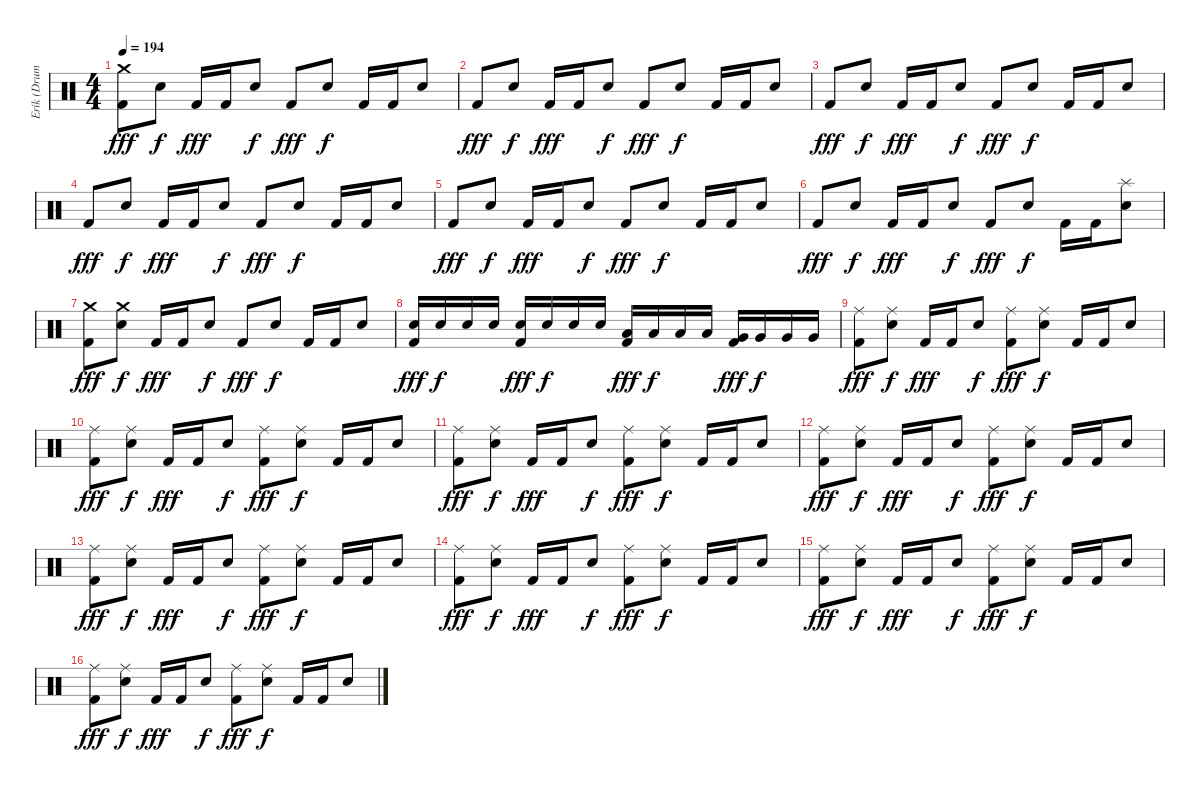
\track ("Erik (Drums)" "Erik (Drum") {instrument percussion}
\staff {score}
\articulation defaults
\ts (4 4)
\tempo 194
\clef neutral
\ks c
("Crash medium (hit)" "Kick (hit) 2").8{dy fff} "Electric Snare (hit)".8{dy f} "Kick (hit) 2".16{dy fff} "Kick (hit) 2".16 "Electric Snare (hit)".8{dy f} "Kick (hit) 2".8{dy fff} "Electric Snare (hit)".8{dy f} "Kick (hit) 2".16 "Kick (hit) 2".16 "Electric Snare (hit)".8 |
"Kick (hit) 2".8{dy fff} "Electric Snare (hit)".8{dy f} "Kick (hit) 2".16{dy fff} "Kick (hit) 2".16 "Electric Snare (hit)".8{dy f} "Kick (hit) 2".8{dy fff} "Electric Snare (hit)".8{dy f} "Kick (hit) 2".16 "Kick (hit) 2".16 "Electric Snare (hit)".8 |
"Kick (hit) 2".8{dy fff} "Electric Snare (hit)".8{dy f} "Kick (hit) 2".16{dy fff} "Kick (hit) 2".16 "Electric Snare (hit)".8{dy f} "Kick (hit) 2".8{dy fff} "Electric Snare (hit)".8{dy f} "Kick (hit) 2".16 "Kick (hit) 2".16 "Electric Snare (hit)".8 |
"Kick (hit) 2".8{dy fff} "Electric Snare (hit)".8{dy f} "Kick (hit) 2".16{dy fff} "Kick (hit) 2".16 "Electric Snare (hit)".8{dy f} "Kick (hit) 2".8{dy fff} "Electric Snare (hit)".8{dy f} "Kick (hit) 2".16 "Kick (hit) 2".16 "Electric Snare (hit)".8 |
"Kick (hit) 2".8{dy fff} "Electric Snare (hit)".8{dy f} "Kick (hit) 2".16{dy fff} "Kick (hit) 2".16 "Electric Snare (hit)".8{dy f} "Kick (hit) 2".8{dy fff} "Electric Snare (hit)".8{dy f} "Kick (hit) 2".16 "Kick (hit) 2".16 "Electric Snare (hit)".8 |
"Kick (hit) 2".8{dy fff} "Electric Snare (hit)".8{dy f} "Kick (hit) 2".16{dy fff} "Kick (hit) 2".16 "Electric Snare (hit)".8{dy f} "Kick (hit) 2".8{dy fff} "Electric Snare (hit)".8{dy f} "Kick (hit) 2".16 "Kick (hit) 2".16 ("Splash (hit)" "Electric Snare (hit)").8 |
("Crash medium (hit)" "Kick (hit) 2").8{dy fff} ("Crash medium (hit)" "Electric Snare (hit)").8{dy f} "Kick (hit) 2".16{dy fff} "Kick (hit) 2".16 "Electric Snare (hit)".8{dy f} "Kick (hit) 2".8{dy fff} "Electric Snare (hit)".8{dy f} "Kick (hit) 2".16 "Kick (hit) 2".16 "Electric Snare (hit)".8 |
("Electric Snare (hit)" "Kick (hit) 2").16{dy fff} "Electric Snare (hit)".16{dy f} "Electric Snare (hit)".16 "Electric Snare (hit)".16 ("Electric Snare (hit)" "Kick (hit) 2").16{dy fff} "Electric Snare (hit)".16{dy f} "Electric Snare (hit)".16 "Electric Snare (hit)".16 ("Low Tom (hit)" "Kick (hit) 2").16{dy fff} "Low Tom (hit)".16{dy f} "Low Tom (hit)".16 "Low Tom (hit)".16 ("Very Low Tom (hit)" "Kick (hit) 2").16{dy fff} "Very Low Tom (hit)".16{dy f} "Very Low Tom (hit)".16 "Very Low Tom (hit)".16 |
("Ride (middle)" "Kick (hit) 2").8{dy fff} ("Ride (middle)" "Electric Snare (hit)").8{dy f} "Kick (hit) 2".16{dy fff} "Kick (hit) 2".16 "Electric Snare (hit)".8{dy f} ("Ride (middle)" "Kick (hit) 2").8{dy fff} ("Ride (middle)" "Electric Snare (hit)").8{dy f} "Kick (hit) 2".16 "Kick (hit) 2".16 "Electric Snare (hit)".8 |
("Ride (middle)" "Kick (hit) 2").8{dy fff} ("Ride (middle)" "Electric Snare (hit)").8{dy f} "Kick (hit) 2".16{dy fff} "Kick (hit) 2".16 "Electric Snare (hit)".8{dy f} ("Ride (middle)" "Kick (hit) 2").8{dy fff} ("Ride (middle)" "Electric Snare (hit)").8{dy f} "Kick (hit) 2".16 "Kick (hit) 2".16 "Electric Snare (hit)".8 |
("Ride (middle)" "Kick (hit) 2").8{dy fff} ("Ride (middle)" "Electric Snare (hit)").8{dy f} "Kick (hit) 2".16{dy fff} "Kick (hit) 2".16 "Electric Snare (hit)".8{dy f} ("Ride (middle)" "Kick (hit) 2").8{dy fff} ("Ride (middle)" "Electric Snare (hit)").8{dy f} "Kick (hit) 2".16 "Kick (hit) 2".16 "Electric Snare (hit)".8 |
("Ride (middle)" "Kick (hit) 2").8{dy fff} ("Ride (middle)" "Electric Snare (hit)").8{dy f} "Kick (hit) 2".16{dy fff} "Kick (hit) 2".16 "Electric Snare (hit)".8{dy f} ("Ride (middle)" "Kick (hit) 2").8{dy fff} ("Ride (middle)" "Electric Snare (hit)").8{dy f} "Kick (hit) 2".16 "Kick (hit) 2".16 "Electric Snare (hit)".8 |
("Ride (middle)" "Kick (hit) 2").8{dy fff} ("Ride (middle)" "Electric Snare (hit)").8{dy f} "Kick (hit) 2".16{dy fff} "Kick (hit) 2".16 "Electric Snare (hit)".8{dy f} ("Ride (middle)" "Kick (hit) 2").8{dy fff} ("Ride (middle)" "Electric Snare (hit)").8{dy f} "Kick (hit) 2".16 "Kick (hit) 2".16 "Electric Snare (hit)".8 |
("Ride (middle)" "Kick (hit) 2").8{dy fff} ("Ride (middle)" "Electric Snare (hit)").8{dy f} "Kick (hit) 2".16{dy fff} "Kick (hit) 2".16 "Electric Snare (hit)".8{dy f} ("Ride (middle)" "Kick (hit) 2").8{dy fff} ("Ride (middle)" "Electric Snare (hit)").8{dy f} "Kick (hit) 2".16 "Kick (hit) 2".16 "Electric Snare (hit)".8 |
("Ride (middle)" "Kick (hit) 2").8{dy fff} ("Ride (middle)" "Electric Snare (hit)").8{dy f} "Kick (hit) 2".16{dy fff} "Kick (hit) 2".16 "Electric Snare (hit)".8{dy f} ("Ride (middle)" "Kick (hit) 2").8{dy fff} ("Ride (middle)" "Electric Snare (hit)").8{dy f} "Kick (hit) 2".16 "Kick (hit) 2".16 "Electric Snare (hit)".8 |
("Ride (middle)" "Kick (hit) 2").8{dy fff} ("Ride (middle)" "Electric Snare (hit)").8{dy f} "Kick (hit) 2".16{dy fff} "Kick (hit) 2".16 "Electric Snare (hit)".8{dy f} ("Ride (middle)" "Kick (hit) 2").8{dy fff} ("Ride (middle)" "Electric Snare (hit)").8{dy f} "Kick (hit) 2".16 "Kick (hit) 2".16 "Electric Snare (hit)".8
